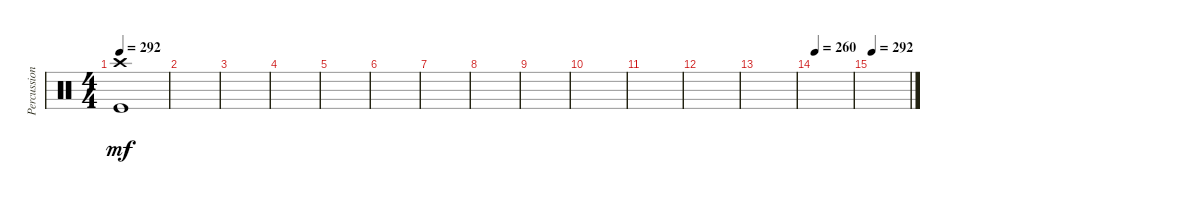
\track ("Percussion" "Percussion") {instrument percussion}
\staff {score}
\articulation defaults
\ts (4 4)
\tempo 292
\clef neutral
\ks c
("Crash high (hit)" "Kick (hit)").1{dy mf} |
|
|
|
|
|
|
|
|
|
|
|
|
\tempo 260
|
\tempo 292
